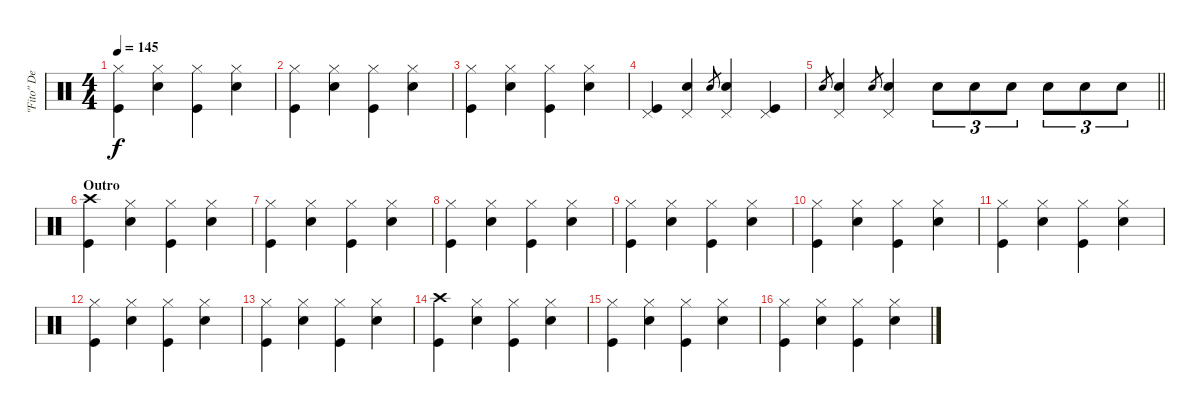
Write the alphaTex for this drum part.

\track ("\"Fito\" De La Parra" "\"Fito\" De ") {instrument percussion}
\staff {score}
\articulation defaults
\ts (4 4)
\tempo 145
\clef neutral
\ks c
("Hi-Hat (closed)" "Kick (hit)").4{dy f} ("Hi-Hat (closed)" "Snare (hit) 2").4 ("Hi-Hat (closed)" "Kick (hit)").4 ("Hi-Hat (closed)" "Snare (hit) 2").4 |
("Hi-Hat (closed)" "Kick (hit)").4 ("Hi-Hat (closed)" "Snare (hit) 2").4 ("Hi-Hat (closed)" "Kick (hit)").4 ("Hi-Hat (closed)" "Snare (hit) 2").4 |
("Hi-Hat (closed)" "Kick (hit)").4 ("Hi-Hat (closed)" "Snare (hit) 2").4 ("Hi-Hat (closed)" "Kick (hit)").4 ("Hi-Hat (closed)" "Snare (hit) 2").4 |
("Pedal Hi-Hat (hit)" "Kick (hit)").4 ("Pedal Hi-Hat (hit)" "Snare (hit) 2").4 "Snare (hit) 2".8{gr} ("Pedal Hi-Hat (hit)" "Snare (hit) 2").4 ("Pedal Hi-Hat (hit)" "Kick (hit)").4 |
\barLineRight lightlight "Snare (hit) 2".8{gr}
("Pedal Hi-Hat (hit)" "Snare (hit) 2").4 "Snare (hit) 2".8{gr} ("Pedal Hi-Hat (hit)" "Snare (hit) 2").4 "Snare (hit) 2".8{tu (3 2)} "Snare (hit) 2".8{tu (3 2)} "Snare (hit) 2".8{tu (3 2)} "Snare (hit) 2".8{tu (3 2)} "Snare (hit) 2".8{tu (3 2)} "Snare (hit) 2".8{tu (3 2)} |
\section ("" "Outro")
("Crash high (hit)" "Kick (hit)").4 ("Hi-Hat (closed)" "Snare (hit) 2").4 ("Hi-Hat (closed)" "Kick (hit)").4 ("Hi-Hat (closed)" "Snare (hit) 2").4 |
("Hi-Hat (closed)" "Kick (hit)").4 ("Hi-Hat (closed)" "Snare (hit) 2").4 ("Hi-Hat (closed)" "Kick (hit)").4 ("Hi-Hat (closed)" "Snare (hit) 2").4 |
("Hi-Hat (closed)" "Kick (hit)").4 ("Hi-Hat (closed)" "Snare (hit) 2").4 ("Hi-Hat (closed)" "Kick (hit)").4 ("Hi-Hat (closed)" "Snare (hit) 2").4 |
("Hi-Hat (closed)" "Kick (hit)").4 ("Hi-Hat (closed)" "Snare (hit) 2").4 ("Hi-Hat (closed)" "Kick (hit)").4 ("Hi-Hat (closed)" "Snare (hit) 2").4 |
("Hi-Hat (closed)" "Kick (hit)").4 ("Hi-Hat (closed)" "Snare (hit) 2").4 ("Hi-Hat (closed)" "Kick (hit)").4 ("Hi-Hat (closed)" "Snare (hit) 2").4 |
("Hi-Hat (closed)" "Kick (hit)").4 ("Hi-Hat (closed)" "Snare (hit) 2").4 ("Hi-Hat (closed)" "Kick (hit)").4 ("Hi-Hat (closed)" "Snare (hit) 2").4 |
("Hi-Hat (closed)" "Kick (hit)").4 ("Hi-Hat (closed)" "Snare (hit) 2").4 ("Hi-Hat (closed)" "Kick (hit)").4 ("Hi-Hat (closed)" "Snare (hit) 2").4 |
("Hi-Hat (closed)" "Kick (hit)").4 ("Hi-Hat (closed)" "Snare (hit) 2").4 ("Hi-Hat (closed)" "Kick (hit)").4 ("Hi-Hat (closed)" "Snare (hit) 2").4 |
("Crash high (hit)" "Kick (hit)").4 ("Hi-Hat (closed)" "Snare (hit) 2").4 ("Hi-Hat (closed)" "Kick (hit)").4 ("Hi-Hat (closed)" "Snare (hit) 2").4 |
("Hi-Hat (closed)" "Kick (hit)").4 ("Hi-Hat (closed)" "Snare (hit) 2").4 ("Hi-Hat (closed)" "Kick (hit)").4 ("Hi-Hat (closed)" "Snare (hit) 2").4 |
("Hi-Hat (closed)" "Kick (hit)").4 ("Hi-Hat (closed)" "Snare (hit) 2").4 ("Hi-Hat (closed)" "Kick (hit)").4 ("Hi-Hat (closed)" "Snare (hit) 2").4
